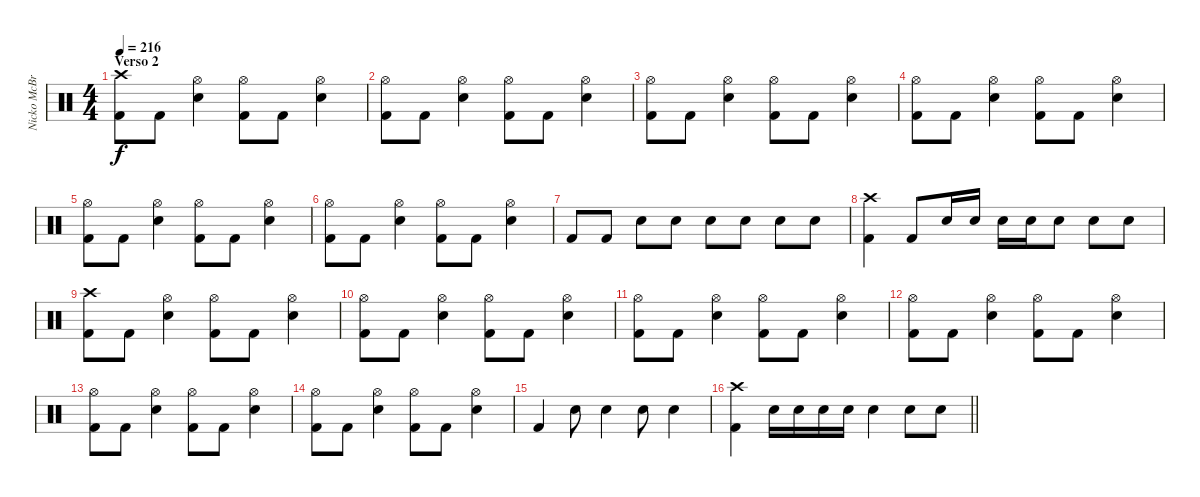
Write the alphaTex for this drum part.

\track ("Nicko McBrain" "Nicko McBr") {instrument percussion}
\staff {score}
\articulation defaults
\ts (4 4)
\section ("" "Verso 2")
\tempo 216
\clef neutral
\ks c
("Crash high (hit)" "Kick (hit) 2").8{dy f} "Kick (hit) 2".8 ("Hi-Hat (open)" "Snare (hit) 2").4 ("Hi-Hat (open)" "Kick (hit) 2").8 "Kick (hit) 2".8 ("Hi-Hat (open)" "Snare (hit) 2").4 |
("Hi-Hat (open)" "Kick (hit) 2").8 "Kick (hit) 2".8 ("Hi-Hat (open)" "Snare (hit) 2").4 ("Hi-Hat (open)" "Kick (hit) 2").8 "Kick (hit) 2".8 ("Hi-Hat (open)" "Snare (hit) 2").4 |
("Hi-Hat (open)" "Kick (hit) 2").8 "Kick (hit) 2".8 ("Hi-Hat (open)" "Snare (hit) 2").4 ("Hi-Hat (open)" "Kick (hit) 2").8 "Kick (hit) 2".8 ("Hi-Hat (open)" "Snare (hit) 2").4 |
("Hi-Hat (open)" "Kick (hit) 2").8 "Kick (hit) 2".8 ("Hi-Hat (open)" "Snare (hit) 2").4 ("Hi-Hat (open)" "Kick (hit) 2").8 "Kick (hit) 2".8 ("Hi-Hat (open)" "Snare (hit) 2").4 |
("Hi-Hat (open)" "Kick (hit) 2").8 "Kick (hit) 2".8 ("Hi-Hat (open)" "Snare (hit) 2").4 ("Hi-Hat (open)" "Kick (hit) 2").8 "Kick (hit) 2".8 ("Hi-Hat (open)" "Snare (hit) 2").4 |
("Hi-Hat (open)" "Kick (hit) 2").8 "Kick (hit) 2".8 ("Hi-Hat (open)" "Snare (hit) 2").4 ("Hi-Hat (open)" "Kick (hit) 2").8 "Kick (hit) 2".8 ("Hi-Hat (open)" "Snare (hit) 2").4 |
"Kick (hit) 2".8 "Kick (hit) 2".8 "Snare (hit) 2".8 "Snare (hit) 2".8 "Snare (hit) 2".8 "Snare (hit) 2".8 "Snare (hit) 2".8 "Snare (hit) 2".8 |
("Crash high (hit)" "Kick (hit) 2").4 "Kick (hit) 2".8 "Snare (hit) 2".16 "Snare (hit) 2".16 "Snare (hit) 2".16 "Snare (hit) 2".16 "Snare (hit) 2".8 "Snare (hit) 2".8 "Snare (hit) 2".8 |
("Crash high (hit)" "Kick (hit) 2").8 "Kick (hit) 2".8 ("Hi-Hat (open)" "Snare (hit) 2").4 ("Hi-Hat (open)" "Kick (hit) 2").8 "Kick (hit) 2".8 ("Hi-Hat (open)" "Snare (hit) 2").4 |
("Hi-Hat (open)" "Kick (hit) 2").8 "Kick (hit) 2".8 ("Hi-Hat (open)" "Snare (hit) 2").4 ("Hi-Hat (open)" "Kick (hit) 2").8 "Kick (hit) 2".8 ("Hi-Hat (open)" "Snare (hit) 2").4 |
("Hi-Hat (open)" "Kick (hit) 2").8 "Kick (hit) 2".8 ("Hi-Hat (open)" "Snare (hit) 2").4 ("Hi-Hat (open)" "Kick (hit) 2").8 "Kick (hit) 2".8 ("Hi-Hat (open)" "Snare (hit) 2").4 |
("Hi-Hat (open)" "Kick (hit) 2").8 "Kick (hit) 2".8 ("Hi-Hat (open)" "Snare (hit) 2").4 ("Hi-Hat (open)" "Kick (hit) 2").8 "Kick (hit) 2".8 ("Hi-Hat (open)" "Snare (hit) 2").4 |
("Hi-Hat (open)" "Kick (hit) 2").8 "Kick (hit) 2".8 ("Hi-Hat (open)" "Snare (hit) 2").4 ("Hi-Hat (open)" "Kick (hit) 2").8 "Kick (hit) 2".8 ("Hi-Hat (open)" "Snare (hit) 2").4 |
("Hi-Hat (open)" "Kick (hit) 2").8 "Kick (hit) 2".8 ("Hi-Hat (open)" "Snare (hit) 2").4 ("Hi-Hat (open)" "Kick (hit) 2").8 "Kick (hit) 2".8 ("Hi-Hat (open)" "Snare (hit) 2").4 |
"Kick (hit) 2".4 "Snare (hit) 2".8 "Snare (hit) 2".4 "Snare (hit) 2".8 "Snare (hit) 2".4 |
\barLineRight lightlight
("Crash high (hit)" "Kick (hit) 2").4 "Snare (hit) 2".16 "Snare (hit) 2".16 "Snare (hit) 2".16 "Snare (hit) 2".16 "Snare (hit) 2".4 "Snare (hit) 2".8 "Snare (hit) 2".8
